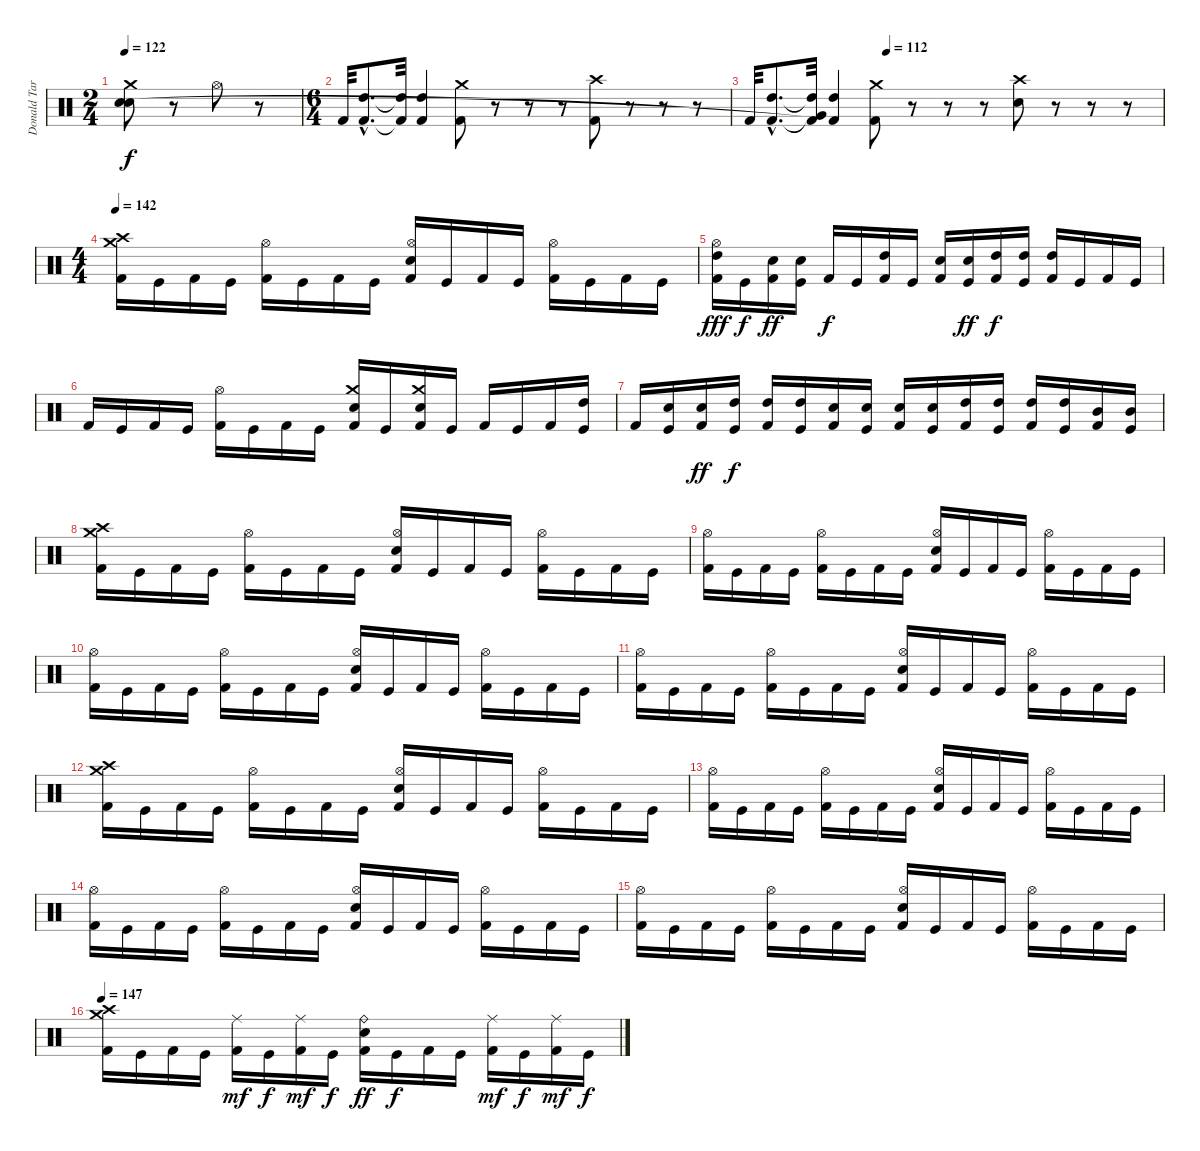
\track ("Donald Tardy (Drums)" "Donald Tar") {instrument percussion}
\staff {score}
\articulation defaults
\ts (2 4)
\tempo 122
\clef neutral
\ks c
("Electric Snare (hit)" "Crash medium (hit)" "Electric Snare (hit)").8{dy f} r.8 "Hi-Hat (open)".8 r.8 |
\ts (6 4)
"Kick (hit) 2".32 ("High Tom (hit)"{hac} "Kick (hit) 2"{hac}).8{d} ("High Tom (hit)"{t} "Kick (hit) 2"{t}).32 ("High Tom (hit)" "Kick (hit) 2").4 ("Kick (hit) 2" "Crash medium (hit)").8 r.8 r.8 r.8 ("Kick (hit) 2" "Crash high (hit)").8 r.8 r.8 r.8 |
\tempo (112 0.3333333333333333)
"Kick (hit) 2".32 ("High Tom (hit)"{hac} "Kick (hit) 2"{hac}).8{d} ("High Tom (hit)"{t} "Very Low Tom (hit)"{t} "Kick (hit) 2"{t}).32 ("High Tom (hit)" "Kick (hit) 2").4 ("Kick (hit) 2" "Crash medium (hit)").8 r.8 r.8 r.8 ("Electric Snare (hit)" "Crash high (hit)").8 r.8 r.8 r.8 |
\ts (4 4)
\tempo 142
("Kick (hit) 2" "Crash medium (hit)" "Crash high (hit)").16 "Kick (hit)".16 "Kick (hit) 2".16 "Kick (hit)".16 ("Kick (hit) 2" "Hi-Hat (open)").16 "Kick (hit)".16 "Kick (hit) 2".16 "Kick (hit)".16 ("Kick (hit) 2" "Electric Snare (hit)" "Hi-Hat (open)").16 "Kick (hit)".16 "Kick (hit) 2".16 "Kick (hit)".16 ("Kick (hit) 2" "Hi-Hat (open)").16 "Kick (hit)".16 "Kick (hit) 2".16 "Kick (hit)".16 |
("Kick (hit) 2" "High Tom (hit)" "Hi-Hat (open)").16{dy fff} "Kick (hit)".16{dy f} ("Kick (hit) 2" "Electric Snare (hit)").16{dy ff} ("Kick (hit)" "Electric Snare (hit)").16 "Kick (hit) 2".16{dy f} "Kick (hit)".16 ("Kick (hit) 2" "High Tom (hit)").16 "Kick (hit)".16 ("Kick (hit) 2" "Electric Snare (hit)").16 ("Kick (hit)" "Electric Snare (hit)").16{dy ff} ("Kick (hit) 2" "High Tom (hit)").16{dy f} ("Kick (hit)" "High Tom (hit)").16 ("Kick (hit) 2" "High Tom (hit)").16 "Kick (hit)".16 "Kick (hit) 2".16 "Kick (hit)".16 |
"Kick (hit) 2".16 "Kick (hit)".16 "Kick (hit) 2".16 "Kick (hit)".16 ("Kick (hit) 2" "Hi-Hat (open)").16 "Kick (hit)".16 "Kick (hit) 2".16 "Kick (hit)".16 ("Kick (hit) 2" "Electric Snare (hit)" "Crash medium (hit)").16 "Kick (hit)".16 ("Kick (hit) 2" "Electric Snare (hit)" "Crash medium (hit)").16 "Kick (hit)".16 "Kick (hit) 2".16 "Kick (hit)".16 "Kick (hit) 2".16 ("Kick (hit)" "High Tom (hit)").16 |
"Kick (hit) 2".16 ("Kick (hit)" "Electric Snare (hit)").16 ("Kick (hit) 2" "Electric Snare (hit)").16{dy ff} ("Kick (hit)" "High Tom (hit)").16{dy f} ("Kick (hit) 2" "High Tom (hit)").16 ("Kick (hit)" "High Tom (hit)").16 ("Kick (hit) 2" "Electric Snare (hit)").16 ("Kick (hit)" "Electric Snare (hit)").16 ("Kick (hit) 2" "Electric Snare (hit)").16 ("Kick (hit)" "Electric Snare (hit)").16 ("Kick (hit) 2" "High Tom (hit)").16 ("Kick (hit)" "High Tom (hit)").16 ("Kick (hit) 2" "High Tom (hit)").16 ("Kick (hit)" "High Tom (hit)").16 ("Kick (hit) 2" "Mid Tom (hit)").16 ("Kick (hit)" "Mid Tom (hit)").16 |
("Kick (hit) 2" "Crash medium (hit)" "Crash high (hit)").16 "Kick (hit)".16 "Kick (hit) 2".16 "Kick (hit)".16 ("Kick (hit) 2" "Hi-Hat (open)").16 "Kick (hit)".16 "Kick (hit) 2".16 "Kick (hit)".16 ("Kick (hit) 2" "Electric Snare (hit)" "Hi-Hat (open)").16 "Kick (hit)".16 "Kick (hit) 2".16 "Kick (hit)".16 ("Kick (hit) 2" "Hi-Hat (open)").16 "Kick (hit)".16 "Kick (hit) 2".16 "Kick (hit)".16 |
("Kick (hit) 2" "Hi-Hat (open)").16 "Kick (hit)".16 "Kick (hit) 2".16 "Kick (hit)".16 ("Kick (hit) 2" "Hi-Hat (open)").16 "Kick (hit)".16 "Kick (hit) 2".16 "Kick (hit)".16 ("Kick (hit) 2" "Electric Snare (hit)" "Hi-Hat (open)").16 "Kick (hit)".16 "Kick (hit) 2".16 "Kick (hit)".16 ("Kick (hit) 2" "Hi-Hat (open)").16 "Kick (hit)".16 "Kick (hit) 2".16 "Kick (hit)".16 |
("Kick (hit) 2" "Hi-Hat (open)").16 "Kick (hit)".16 "Kick (hit) 2".16 "Kick (hit)".16 ("Kick (hit) 2" "Hi-Hat (open)").16 "Kick (hit)".16 "Kick (hit) 2".16 "Kick (hit)".16 ("Kick (hit) 2" "Electric Snare (hit)" "Hi-Hat (open)").16 "Kick (hit)".16 "Kick (hit) 2".16 "Kick (hit)".16 ("Kick (hit) 2" "Hi-Hat (open)").16 "Kick (hit)".16 "Kick (hit) 2".16 "Kick (hit)".16 |
("Kick (hit) 2" "Hi-Hat (open)").16 "Kick (hit)".16 "Kick (hit) 2".16 "Kick (hit)".16 ("Kick (hit) 2" "Hi-Hat (open)").16 "Kick (hit)".16 "Kick (hit) 2".16 "Kick (hit)".16 ("Kick (hit) 2" "Electric Snare (hit)" "Hi-Hat (open)").16 "Kick (hit)".16 "Kick (hit) 2".16 "Kick (hit)".16 ("Kick (hit) 2" "Hi-Hat (open)").16 "Kick (hit)".16 "Kick (hit) 2".16 "Kick (hit)".16 |
("Kick (hit) 2" "Crash medium (hit)" "Crash high (hit)").16 "Kick (hit)".16 "Kick (hit) 2".16 "Kick (hit)".16 ("Kick (hit) 2" "Hi-Hat (open)").16 "Kick (hit)".16 "Kick (hit) 2".16 "Kick (hit)".16 ("Kick (hit) 2" "Electric Snare (hit)" "Hi-Hat (open)").16 "Kick (hit)".16 "Kick (hit) 2".16 "Kick (hit)".16 ("Kick (hit) 2" "Hi-Hat (open)").16 "Kick (hit)".16 "Kick (hit) 2".16 "Kick (hit)".16 |
("Kick (hit) 2" "Hi-Hat (open)").16 "Kick (hit)".16 "Kick (hit) 2".16 "Kick (hit)".16 ("Kick (hit) 2" "Hi-Hat (open)").16 "Kick (hit)".16 "Kick (hit) 2".16 "Kick (hit)".16 ("Kick (hit) 2" "Electric Snare (hit)" "Hi-Hat (open)").16 "Kick (hit)".16 "Kick (hit) 2".16 "Kick (hit)".16 ("Kick (hit) 2" "Hi-Hat (open)").16 "Kick (hit)".16 "Kick (hit) 2".16 "Kick (hit)".16 |
("Kick (hit) 2" "Hi-Hat (open)").16 "Kick (hit)".16 "Kick (hit) 2".16 "Kick (hit)".16 ("Kick (hit) 2" "Hi-Hat (open)").16 "Kick (hit)".16 "Kick (hit) 2".16 "Kick (hit)".16 ("Kick (hit) 2" "Electric Snare (hit)" "Hi-Hat (open)").16 "Kick (hit)".16 "Kick (hit) 2".16 "Kick (hit)".16 ("Kick (hit) 2" "Hi-Hat (open)").16 "Kick (hit)".16 "Kick (hit) 2".16 "Kick (hit)".16 |
("Kick (hit) 2" "Hi-Hat (open)").16 "Kick (hit)".16 "Kick (hit) 2".16 "Kick (hit)".16 ("Kick (hit) 2" "Hi-Hat (open)").16 "Kick (hit)".16 "Kick (hit) 2".16 "Kick (hit)".16 ("Kick (hit) 2" "Electric Snare (hit)" "Hi-Hat (open)").16 "Kick (hit)".16 "Kick (hit) 2".16 "Kick (hit)".16 ("Kick (hit) 2" "Hi-Hat (open)").16 "Kick (hit)".16 "Kick (hit) 2".16 "Kick (hit)".16 |
\tempo 147
("Kick (hit) 2" "Crash medium (hit)" "Crash high (hit)").16 "Kick (hit)".16 "Kick (hit) 2".16 "Kick (hit)".16 ("Kick (hit) 2" "Ride (middle)").16{dy mf} "Kick (hit)".16{dy f} ("Kick (hit) 2" "Ride (middle)").16{dy mf} "Kick (hit)".16{dy f} ("Kick (hit) 2" "Electric Snare (hit)" "Ride (bell)").16{dy ff} "Kick (hit)".16{dy f} "Kick (hit) 2".16 "Kick (hit)".16 ("Kick (hit) 2" "Ride (middle)").16{dy mf} "Kick (hit)".16{dy f} ("Kick (hit) 2" "Ride (middle)").16{dy mf} "Kick (hit)".16{dy f}
